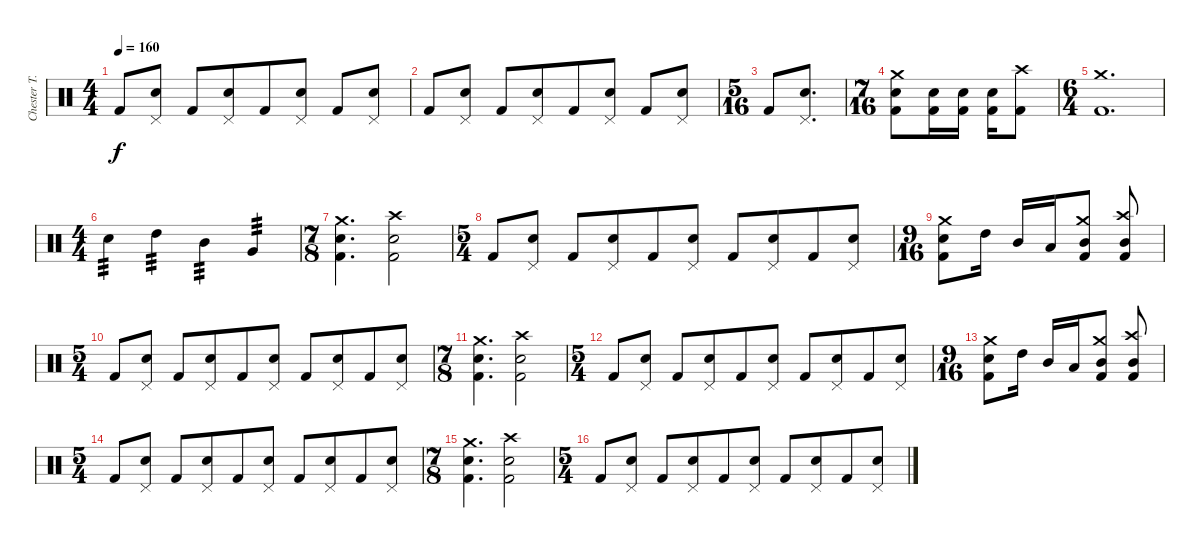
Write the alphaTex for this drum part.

\track ("Chester T." "Chester T.") {instrument percussion}
\staff {score}
\articulation defaults
\ts (4 4)
\tempo 160
\clef neutral
\ks c "Kick (hit) 2".8{dy f}
("Electric Snare (hit)" "Pedal Hi-Hat (hit)").8 "Kick (hit) 2".8 ("Electric Snare (hit)" "Pedal Hi-Hat (hit)").8{beam merge} "Kick (hit) 2".8 ("Electric Snare (hit)" "Pedal Hi-Hat (hit)").8 "Kick (hit) 2".8{beam merge} ("Electric Snare (hit)" "Pedal Hi-Hat (hit)").8 |
"Kick (hit) 2".8 ("Electric Snare (hit)" "Pedal Hi-Hat (hit)").8 "Kick (hit) 2".8 ("Electric Snare (hit)" "Pedal Hi-Hat (hit)").8{beam merge} "Kick (hit) 2".8 ("Electric Snare (hit)" "Pedal Hi-Hat (hit)").8 "Kick (hit) 2".8{beam merge} ("Electric Snare (hit)" "Pedal Hi-Hat (hit)").8 |
\ts (5 16)
"Kick (hit) 2".8 ("Electric Snare (hit)" "Pedal Hi-Hat (hit)").8{d} |
\ts (7 16)
("Crash medium (hit)" "Electric Snare (hit)" "Kick (hit) 2").8 ("Electric Snare (hit)" "Kick (hit) 2").16 ("Electric Snare (hit)" "Kick (hit) 2").16 ("Electric Snare (hit)" "Kick (hit) 2").16 ("Crash high (hit)" "Kick (hit) 2").8 |
\ts (6 4)
("Crash medium (hit)" "Kick (hit) 2").1{d} |
\ts (4 4)
"Electric Snare (hit)".4{tp 3 beam merge} "High Tom (hit)".4{tp 3} "Mid Tom (hit)".4{tp 3} "Very Low Tom (hit)".4{tp 3} |
\ts (7 8)
("Crash medium (hit)" "Electric Snare (hit)" "Kick (hit) 2").4{d} ("Crash high (hit)" "Electric Snare (hit)" "Kick (hit) 2").2 |
\ts (5 4)
"Kick (hit) 2".8{beam merge} ("Pedal Hi-Hat (hit)" "Electric Snare (hit)").8 "Kick (hit) 2".8 ("Pedal Hi-Hat (hit)" "Electric Snare (hit)").8{beam merge} "Kick (hit) 2".8 ("Pedal Hi-Hat (hit)" "Electric Snare (hit)").8 "Kick (hit) 2".8 ("Pedal Hi-Hat (hit)" "Electric Snare (hit)").8{beam merge} "Kick (hit) 2".8{beam merge} ("Pedal Hi-Hat (hit)" "Electric Snare (hit)").8 |
\ts (9 16)
("Crash medium (hit)" "Electric Snare (hit)" "Kick (hit) 2").8 "High Tom (hit)".16 "Mid Tom (hit)".16 "Low Tom (hit)".16 ("Crash medium (hit)" "Mid Tom (hit)" "Kick (hit) 2").8 ("Crash high (hit)" "Mid Tom (hit)" "Kick (hit) 2").8 |
\ts (5 4)
"Kick (hit) 2".8{beam merge} ("Pedal Hi-Hat (hit)" "Electric Snare (hit)").8 "Kick (hit) 2".8 ("Pedal Hi-Hat (hit)" "Electric Snare (hit)").8{beam merge} "Kick (hit) 2".8 ("Pedal Hi-Hat (hit)" "Electric Snare (hit)").8 "Kick (hit) 2".8 ("Pedal Hi-Hat (hit)" "Electric Snare (hit)").8{beam merge} "Kick (hit) 2".8{beam merge} ("Pedal Hi-Hat (hit)" "Electric Snare (hit)").8 |
\ts (7 8)
("Crash medium (hit)" "Electric Snare (hit)" "Kick (hit) 2").4{d} ("Crash high (hit)" "Electric Snare (hit)" "Kick (hit) 2").2 |
\ts (5 4)
"Kick (hit) 2".8{beam merge} ("Pedal Hi-Hat (hit)" "Electric Snare (hit)").8 "Kick (hit) 2".8 ("Pedal Hi-Hat (hit)" "Electric Snare (hit)").8{beam merge} "Kick (hit) 2".8 ("Pedal Hi-Hat (hit)" "Electric Snare (hit)").8 "Kick (hit) 2".8 ("Pedal Hi-Hat (hit)" "Electric Snare (hit)").8{beam merge} "Kick (hit) 2".8{beam merge} ("Pedal Hi-Hat (hit)" "Electric Snare (hit)").8 |
\ts (9 16)
("Crash medium (hit)" "Electric Snare (hit)" "Kick (hit) 2").8 "High Tom (hit)".16 "Mid Tom (hit)".16 "Low Tom (hit)".16 ("Crash medium (hit)" "Mid Tom (hit)" "Kick (hit) 2").8 ("Crash high (hit)" "Mid Tom (hit)" "Kick (hit) 2").8 |
\ts (5 4)
"Kick (hit) 2".8{beam merge} ("Pedal Hi-Hat (hit)" "Electric Snare (hit)").8 "Kick (hit) 2".8 ("Pedal Hi-Hat (hit)" "Electric Snare (hit)").8{beam merge} "Kick (hit) 2".8 ("Pedal Hi-Hat (hit)" "Electric Snare (hit)").8 "Kick (hit) 2".8 ("Pedal Hi-Hat (hit)" "Electric Snare (hit)").8{beam merge} "Kick (hit) 2".8{beam merge} ("Pedal Hi-Hat (hit)" "Electric Snare (hit)").8 |
\ts (7 8)
("Crash medium (hit)" "Electric Snare (hit)" "Kick (hit) 2").4{d} ("Crash high (hit)" "Electric Snare (hit)" "Kick (hit) 2").2 |
\ts (5 4)
"Kick (hit) 2".8{beam merge} ("Pedal Hi-Hat (hit)" "Electric Snare (hit)").8 "Kick (hit) 2".8 ("Pedal Hi-Hat (hit)" "Electric Snare (hit)").8{beam merge} "Kick (hit) 2".8 ("Pedal Hi-Hat (hit)" "Electric Snare (hit)").8 "Kick (hit) 2".8 ("Pedal Hi-Hat (hit)" "Electric Snare (hit)").8{beam merge} "Kick (hit) 2".8{beam merge} ("Pedal Hi-Hat (hit)" "Electric Snare (hit)").8
